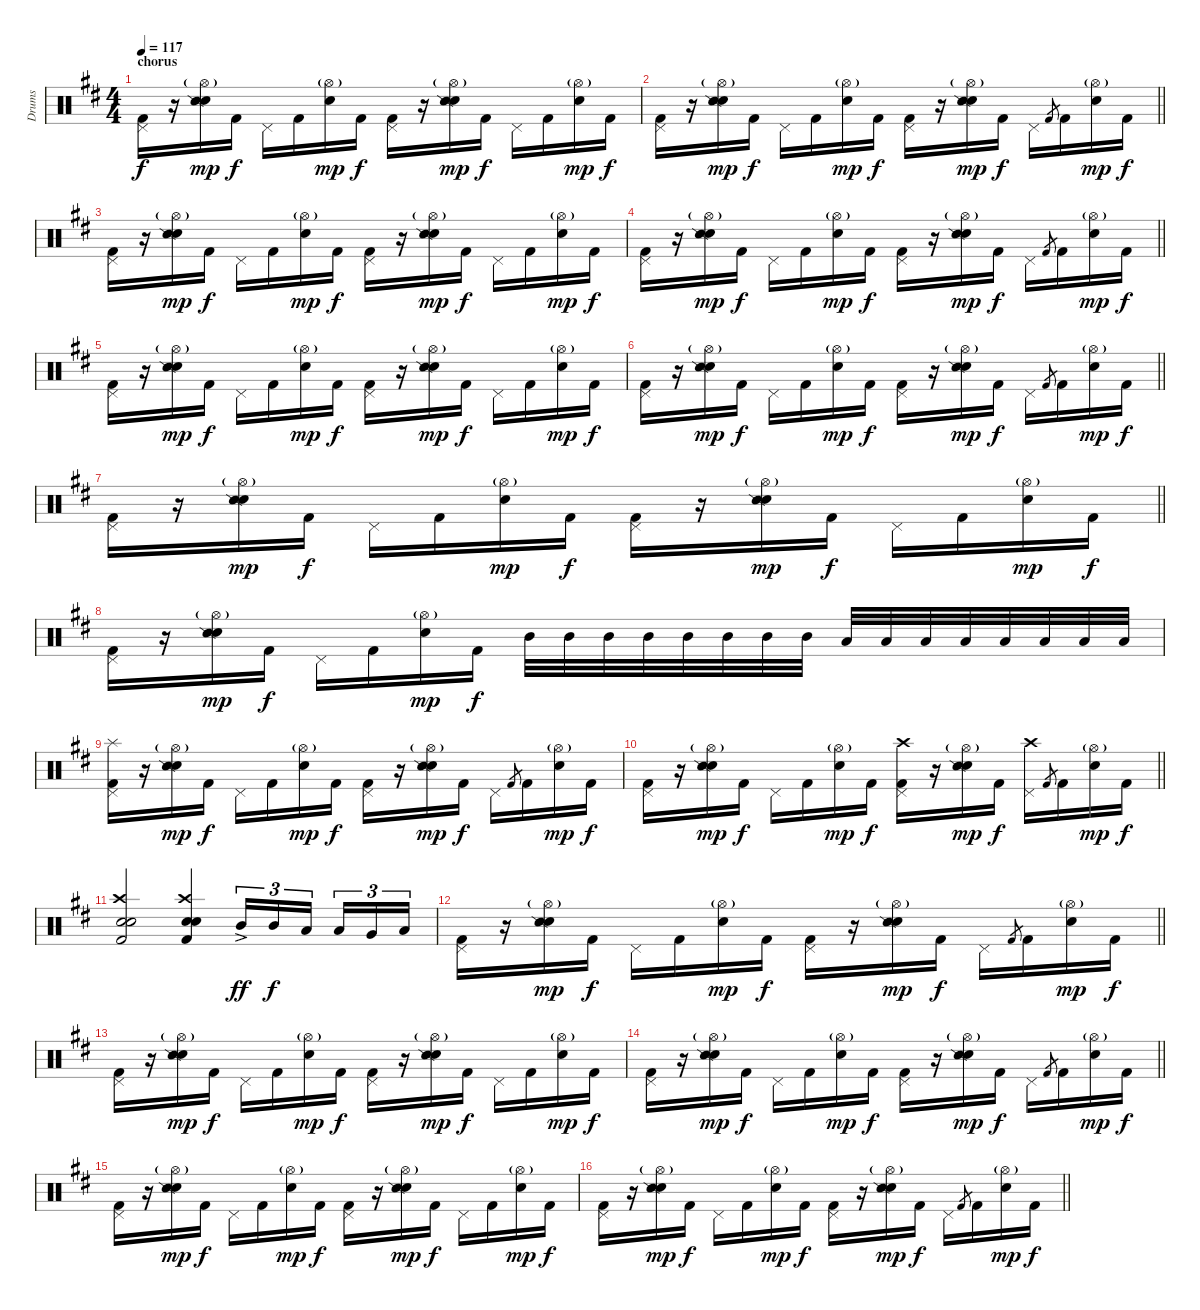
\track ("Drums" "Drums") {instrument percussion}
\staff {score}
\articulation defaults
\ts (4 4)
\section ("" "chorus")
\tempo 117
\clef neutral
\ks d
("Pedal Hi-Hat (hit)" "Kick (hit) 2").16{dy f} r.16 ("Hi-Hat (open)"{g} "Electric Snare (hit)" "Snare (side stick) 2").16{dy mp} "Kick (hit) 2".16{dy f} "Pedal Hi-Hat (hit)".16 "Kick (hit) 2".16 ("Hi-Hat (open)"{g} "Electric Snare (hit)").16{dy mp} "Kick (hit) 2".16{dy f} ("Pedal Hi-Hat (hit)" "Kick (hit) 2").16 r.16 ("Hi-Hat (open)"{g} "Electric Snare (hit)" "Snare (side stick) 2").16{dy mp} "Kick (hit) 2".16{dy f} "Pedal Hi-Hat (hit)".16 "Kick (hit) 2".16 ("Hi-Hat (open)"{g} "Electric Snare (hit)").16{dy mp} "Kick (hit) 2".16{dy f} |
\barLineRight lightlight
("Pedal Hi-Hat (hit)" "Kick (hit) 2").16 r.16 ("Hi-Hat (open)"{g} "Electric Snare (hit)" "Snare (side stick) 2").16{dy mp} "Kick (hit) 2".16{dy f} "Pedal Hi-Hat (hit)".16 "Kick (hit) 2".16 ("Hi-Hat (open)"{g} "Electric Snare (hit)").16{dy mp} "Kick (hit) 2".16{dy f} ("Pedal Hi-Hat (hit)" "Kick (hit) 2").16 r.16 ("Hi-Hat (open)"{g} "Electric Snare (hit)" "Snare (side stick) 2").16{dy mp} "Kick (hit) 2".16{dy f} "Pedal Hi-Hat (hit)".16 "Kick (hit) 2".8{gr} "Kick (hit) 2".16 ("Hi-Hat (open)"{g} "Electric Snare (hit)").16{dy mp} "Kick (hit) 2".16{dy f} |
("Pedal Hi-Hat (hit)" "Kick (hit) 2").16 r.16 ("Hi-Hat (open)"{g} "Electric Snare (hit)" "Snare (side stick) 2").16{dy mp} "Kick (hit) 2".16{dy f} "Pedal Hi-Hat (hit)".16 "Kick (hit) 2".16 ("Hi-Hat (open)"{g} "Electric Snare (hit)").16{dy mp} "Kick (hit) 2".16{dy f} ("Pedal Hi-Hat (hit)" "Kick (hit) 2").16 r.16 ("Hi-Hat (open)"{g} "Electric Snare (hit)" "Snare (side stick) 2").16{dy mp} "Kick (hit) 2".16{dy f} "Pedal Hi-Hat (hit)".16 "Kick (hit) 2".16 ("Hi-Hat (open)"{g} "Electric Snare (hit)").16{dy mp} "Kick (hit) 2".16{dy f} |
\barLineRight lightlight
("Pedal Hi-Hat (hit)" "Kick (hit) 2").16 r.16 ("Hi-Hat (open)"{g} "Electric Snare (hit)" "Snare (side stick) 2").16{dy mp} "Kick (hit) 2".16{dy f} "Pedal Hi-Hat (hit)".16 "Kick (hit) 2".16 ("Hi-Hat (open)"{g} "Electric Snare (hit)").16{dy mp} "Kick (hit) 2".16{dy f} ("Pedal Hi-Hat (hit)" "Kick (hit) 2").16 r.16 ("Hi-Hat (open)"{g} "Electric Snare (hit)" "Snare (side stick) 2").16{dy mp} "Kick (hit) 2".16{dy f} "Pedal Hi-Hat (hit)".16 "Kick (hit) 2".8{gr} "Kick (hit) 2".16 ("Hi-Hat (open)"{g} "Electric Snare (hit)").16{dy mp} "Kick (hit) 2".16{dy f} |
("Pedal Hi-Hat (hit)" "Kick (hit) 2").16 r.16 ("Hi-Hat (open)"{g} "Electric Snare (hit)" "Snare (side stick) 2").16{dy mp} "Kick (hit) 2".16{dy f} "Pedal Hi-Hat (hit)".16 "Kick (hit) 2".16 ("Hi-Hat (open)"{g} "Electric Snare (hit)").16{dy mp} "Kick (hit) 2".16{dy f} ("Pedal Hi-Hat (hit)" "Kick (hit) 2").16 r.16 ("Hi-Hat (open)"{g} "Electric Snare (hit)" "Snare (side stick) 2").16{dy mp} "Kick (hit) 2".16{dy f} "Pedal Hi-Hat (hit)".16 "Kick (hit) 2".16 ("Hi-Hat (open)"{g} "Electric Snare (hit)").16{dy mp} "Kick (hit) 2".16{dy f} |
\barLineRight lightlight
("Pedal Hi-Hat (hit)" "Kick (hit) 2").16 r.16 ("Hi-Hat (open)"{g} "Electric Snare (hit)" "Snare (side stick) 2").16{dy mp} "Kick (hit) 2".16{dy f} "Pedal Hi-Hat (hit)".16 "Kick (hit) 2".16 ("Hi-Hat (open)"{g} "Electric Snare (hit)").16{dy mp} "Kick (hit) 2".16{dy f} ("Pedal Hi-Hat (hit)" "Kick (hit) 2").16 r.16 ("Hi-Hat (open)"{g} "Electric Snare (hit)" "Snare (side stick) 2").16{dy mp} "Kick (hit) 2".16{dy f} "Pedal Hi-Hat (hit)".16 "Kick (hit) 2".8{gr} "Kick (hit) 2".16 ("Hi-Hat (open)"{g} "Electric Snare (hit)").16{dy mp} "Kick (hit) 2".16{dy f} |
\barLineRight lightlight
("Pedal Hi-Hat (hit)" "Kick (hit) 2").16 r.16 ("Hi-Hat (open)"{g} "Electric Snare (hit)" "Snare (side stick) 2").16{dy mp} "Kick (hit) 2".16{dy f} "Pedal Hi-Hat (hit)".16 "Kick (hit) 2".16 ("Hi-Hat (open)"{g} "Electric Snare (hit)").16{dy mp} "Kick (hit) 2".16{dy f} ("Pedal Hi-Hat (hit)" "Kick (hit) 2").16 r.16 ("Hi-Hat (open)"{g} "Electric Snare (hit)" "Snare (side stick) 2").16{dy mp} "Kick (hit) 2".16{dy f} "Pedal Hi-Hat (hit)".16 "Kick (hit) 2".16 ("Hi-Hat (open)"{g} "Electric Snare (hit)").16{dy mp} "Kick (hit) 2".16{dy f} |
("Pedal Hi-Hat (hit)" "Kick (hit) 2").16 r.16 ("Hi-Hat (open)"{g} "Electric Snare (hit)" "Snare (side stick) 2").16{dy mp} "Kick (hit) 2".16{dy f} "Pedal Hi-Hat (hit)".16 "Kick (hit) 2".16 ("Hi-Hat (open)"{g} "Electric Snare (hit)").16{dy mp} "Kick (hit) 2".16{dy f} "Mid Tom (hit)".32 "Mid Tom (hit)".32 "Mid Tom (hit)".32 "Mid Tom (hit)".32 "Mid Tom (hit)".32 "Mid Tom (hit)".32 "Mid Tom (hit)".32 "Mid Tom (hit)".32 "Low Tom (hit)".32 "Low Tom (hit)".32 "Low Tom (hit)".32 "Low Tom (hit)".32 "Low Tom (hit)".32 "Low Tom (hit)".32 "Low Tom (hit)".32 "Low Tom (hit)".32 |
("Pedal Hi-Hat (hit)" "Splash (hit)" "Kick (hit) 2").16 r.16 ("Hi-Hat (open)"{g} "Electric Snare (hit)" "Snare (side stick) 2").16{dy mp} "Kick (hit) 2".16{dy f} "Pedal Hi-Hat (hit)".16 "Kick (hit) 2".16 ("Hi-Hat (open)"{g} "Electric Snare (hit)").16{dy mp} "Kick (hit) 2".16{dy f} ("Pedal Hi-Hat (hit)" "Kick (hit) 2").16 r.16 ("Hi-Hat (open)"{g} "Electric Snare (hit)" "Snare (side stick) 2").16{dy mp} "Kick (hit) 2".16{dy f} "Pedal Hi-Hat (hit)".16 "Kick (hit) 2".8{gr} "Kick (hit) 2".16 ("Hi-Hat (open)"{g} "Electric Snare (hit)").16{dy mp} "Kick (hit) 2".16{dy f} |
\barLineRight lightlight
("Pedal Hi-Hat (hit)" "Kick (hit) 2").16 r.16 ("Hi-Hat (open)"{g} "Electric Snare (hit)" "Snare (side stick) 2").16{dy mp} "Kick (hit) 2".16{dy f} "Pedal Hi-Hat (hit)".16 "Kick (hit) 2".16 ("Hi-Hat (open)"{g} "Electric Snare (hit)").16{dy mp} "Kick (hit) 2".16{dy f} ("Pedal Hi-Hat (hit)" "Crash high (hit)" "Kick (hit) 2").16 r.16 ("Hi-Hat (open)"{g} "Electric Snare (hit)" "Snare (side stick) 2").16{dy mp} "Kick (hit) 2".16{dy f} ("Pedal Hi-Hat (hit)" "Crash high (hit)").16 "Kick (hit) 2".8{gr} "Kick (hit) 2".16 ("Hi-Hat (open)"{g} "Electric Snare (hit)").16{dy mp} "Kick (hit) 2".16{dy f} |
("Crash high (hit)" "Snare (hit) 2" "Electric Snare (hit)" "Kick (hit) 2").2 ("Crash high (hit)" "Snare (hit) 2" "Electric Snare (hit)" "Kick (hit) 2").4 "Mid Tom (hit)"{ac}.16{tu (3 2) dy ff} "Mid Tom (hit)".16{tu (3 2) dy f} "Low Tom (hit)".16{tu (3 2) beam splitsecondary} "Low Tom (hit)".16{tu (3 2)} "Very Low Tom (hit)".16{tu (3 2)} "Low Floor Tom (hit)".16{tu (3 2)} |
\barLineRight lightlight
("Pedal Hi-Hat (hit)" "Kick (hit) 2").16 r.16 ("Hi-Hat (open)"{g} "Electric Snare (hit)" "Snare (side stick) 2").16{dy mp} "Kick (hit) 2".16{dy f} "Pedal Hi-Hat (hit)".16 "Kick (hit) 2".16 ("Hi-Hat (open)"{g} "Electric Snare (hit)").16{dy mp} "Kick (hit) 2".16{dy f} ("Pedal Hi-Hat (hit)" "Kick (hit) 2").16 r.16 ("Hi-Hat (open)"{g} "Electric Snare (hit)" "Snare (side stick) 2").16{dy mp} "Kick (hit) 2".16{dy f} "Pedal Hi-Hat (hit)".16 "Kick (hit) 2".8{gr} "Kick (hit) 2".16 ("Hi-Hat (open)"{g} "Electric Snare (hit)").16{dy mp} "Kick (hit) 2".16{dy f} |
("Pedal Hi-Hat (hit)" "Kick (hit) 2").16 r.16 ("Hi-Hat (open)"{g} "Electric Snare (hit)" "Snare (side stick) 2").16{dy mp} "Kick (hit) 2".16{dy f} "Pedal Hi-Hat (hit)".16 "Kick (hit) 2".16 ("Hi-Hat (open)"{g} "Electric Snare (hit)").16{dy mp} "Kick (hit) 2".16{dy f} ("Pedal Hi-Hat (hit)" "Kick (hit) 2").16 r.16 ("Hi-Hat (open)"{g} "Electric Snare (hit)" "Snare (side stick) 2").16{dy mp} "Kick (hit) 2".16{dy f} "Pedal Hi-Hat (hit)".16 "Kick (hit) 2".16 ("Hi-Hat (open)"{g} "Electric Snare (hit)").16{dy mp} "Kick (hit) 2".16{dy f} |
\barLineRight lightlight
("Pedal Hi-Hat (hit)" "Kick (hit) 2").16 r.16 ("Hi-Hat (open)"{g} "Electric Snare (hit)" "Snare (side stick) 2").16{dy mp} "Kick (hit) 2".16{dy f} "Pedal Hi-Hat (hit)".16 "Kick (hit) 2".16 ("Hi-Hat (open)"{g} "Electric Snare (hit)").16{dy mp} "Kick (hit) 2".16{dy f} ("Pedal Hi-Hat (hit)" "Kick (hit) 2").16 r.16 ("Hi-Hat (open)"{g} "Electric Snare (hit)" "Snare (side stick) 2").16{dy mp} "Kick (hit) 2".16{dy f} "Pedal Hi-Hat (hit)".16 "Kick (hit) 2".8{gr} "Kick (hit) 2".16 ("Hi-Hat (open)"{g} "Electric Snare (hit)").16{dy mp} "Kick (hit) 2".16{dy f} |
("Pedal Hi-Hat (hit)" "Kick (hit) 2").16 r.16 ("Hi-Hat (open)"{g} "Electric Snare (hit)" "Snare (side stick) 2").16{dy mp} "Kick (hit) 2".16{dy f} "Pedal Hi-Hat (hit)".16 "Kick (hit) 2".16 ("Hi-Hat (open)"{g} "Electric Snare (hit)").16{dy mp} "Kick (hit) 2".16{dy f} ("Pedal Hi-Hat (hit)" "Kick (hit) 2").16 r.16 ("Hi-Hat (open)"{g} "Electric Snare (hit)" "Snare (side stick) 2").16{dy mp} "Kick (hit) 2".16{dy f} "Pedal Hi-Hat (hit)".16 "Kick (hit) 2".16 ("Hi-Hat (open)"{g} "Electric Snare (hit)").16{dy mp} "Kick (hit) 2".16{dy f} |
\barLineRight lightlight
("Pedal Hi-Hat (hit)" "Kick (hit) 2").16 r.16 ("Hi-Hat (open)"{g} "Electric Snare (hit)" "Snare (side stick) 2").16{dy mp} "Kick (hit) 2".16{dy f} "Pedal Hi-Hat (hit)".16 "Kick (hit) 2".16 ("Hi-Hat (open)"{g} "Electric Snare (hit)").16{dy mp} "Kick (hit) 2".16{dy f} ("Pedal Hi-Hat (hit)" "Kick (hit) 2").16 r.16 ("Hi-Hat (open)"{g} "Electric Snare (hit)" "Snare (side stick) 2").16{dy mp} "Kick (hit) 2".16{dy f} "Pedal Hi-Hat (hit)".16 "Kick (hit) 2".8{gr} "Kick (hit) 2".16 ("Hi-Hat (open)"{g} "Electric Snare (hit)").16{dy mp} "Kick (hit) 2".16{dy f}
